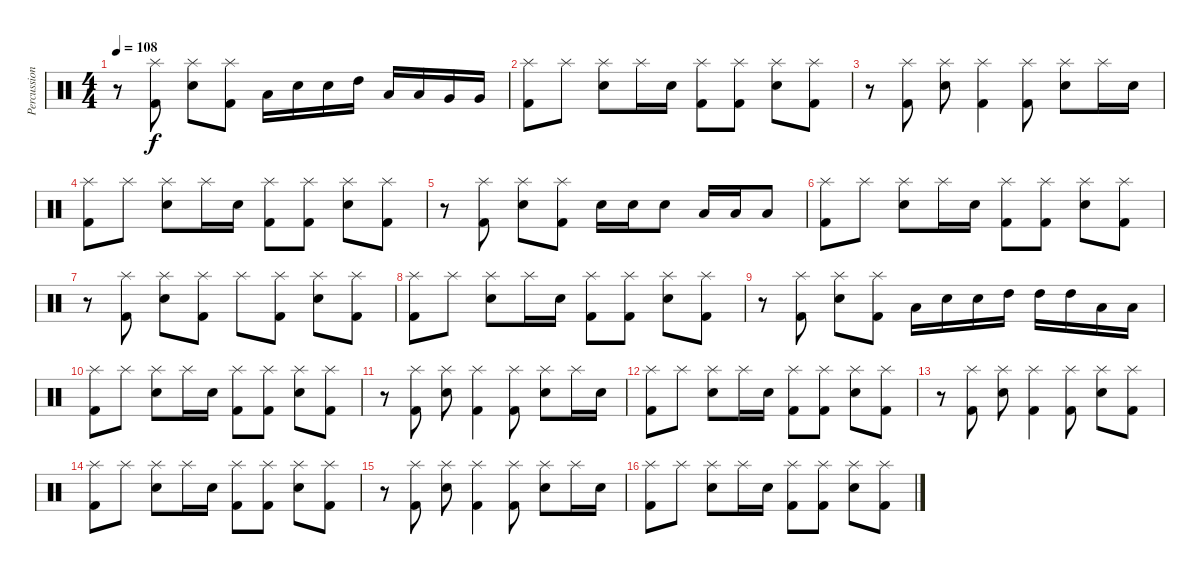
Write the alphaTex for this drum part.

\track ("Percussion" "Percussion") {instrument percussion}
\staff {score}
\articulation defaults
\ts (4 4)
\tempo 108
\clef neutral
\ks c
r.8{dy f} ("Kick (hit) 2" "Splash (hit)").8 ("Snare (hit) 2" "Splash (hit)").8 ("Kick (hit) 2" "Splash (hit)").8 "Low Tom (hit)".16 "Snare (hit) 2".16 "Snare (hit) 2".16 "High Tom (hit)".16 "Low Tom (hit)".16 "Low Tom (hit)".16 "Very Low Tom (hit)".16 "Very Low Tom (hit)".16 |
("Kick (hit) 2" "Splash (hit)").8 "Splash (hit)".8 ("Snare (hit) 2" "Splash (hit)").8 "Splash (hit)".16 "Snare (hit) 2".16 ("Kick (hit) 2" "Splash (hit)").8 ("Kick (hit) 2" "Splash (hit)").8 ("Snare (hit) 2" "Splash (hit)").8 ("Kick (hit) 2" "Splash (hit)").8 |
r.8 ("Kick (hit) 2" "Splash (hit)").8 ("Snare (hit) 2" "Splash (hit)").8 ("Kick (hit) 2" "Splash (hit)").4 ("Kick (hit) 2" "Splash (hit)").8 ("Snare (hit) 2" "Splash (hit)").8 "Splash (hit)".16 "Snare (hit) 2".16 |
("Kick (hit) 2" "Splash (hit)").8 "Splash (hit)".8 ("Snare (hit) 2" "Splash (hit)").8 "Splash (hit)".16 "Snare (hit) 2".16 ("Kick (hit) 2" "Splash (hit)").8 ("Kick (hit) 2" "Splash (hit)").8 ("Snare (hit) 2" "Splash (hit)").8 ("Kick (hit) 2" "Splash (hit)").8 |
r.8 ("Kick (hit) 2" "Splash (hit)").8 ("Snare (hit) 2" "Splash (hit)").8 ("Kick (hit) 2" "Splash (hit)").8 "Snare (hit) 2".16 "Snare (hit) 2".16 "Snare (hit) 2".8 "Low Tom (hit)".16 "Low Tom (hit)".16 "Low Tom (hit)".8 |
("Kick (hit) 2" "Splash (hit)").8 "Splash (hit)".8 ("Snare (hit) 2" "Splash (hit)").8 "Splash (hit)".16 "Snare (hit) 2".16 ("Kick (hit) 2" "Splash (hit)").8 ("Kick (hit) 2" "Splash (hit)").8 ("Snare (hit) 2" "Splash (hit)").8 ("Kick (hit) 2" "Splash (hit)").8 |
r.8 ("Kick (hit) 2" "Splash (hit)").8 ("Snare (hit) 2" "Splash (hit)").8 ("Kick (hit) 2" "Splash (hit)").8 "Splash (hit)".8 ("Kick (hit) 2" "Splash (hit)").8 ("Snare (hit) 2" "Splash (hit)").8 ("Kick (hit) 2" "Splash (hit)").8 |
("Kick (hit) 2" "Splash (hit)").8 "Splash (hit)".8 ("Snare (hit) 2" "Splash (hit)").8 "Splash (hit)".16 "Snare (hit) 2".16 ("Kick (hit) 2" "Splash (hit)").8 ("Kick (hit) 2" "Splash (hit)").8 ("Snare (hit) 2" "Splash (hit)").8 ("Kick (hit) 2" "Splash (hit)").8 |
r.8 ("Kick (hit) 2" "Splash (hit)").8 ("Snare (hit) 2" "Splash (hit)").8 ("Kick (hit) 2" "Splash (hit)").8 "Low Tom (hit)".16 "Snare (hit) 2".16 "Snare (hit) 2".16 "High Tom (hit)".16 "High Tom (hit)".16 "High Tom (hit)".16 "Low Tom (hit)".16 "Low Tom (hit)".16 |
("Kick (hit) 2" "Splash (hit)").8 "Splash (hit)".8 ("Snare (hit) 2" "Splash (hit)").8 "Splash (hit)".16 "Snare (hit) 2".16 ("Kick (hit) 2" "Splash (hit)").8 ("Kick (hit) 2" "Splash (hit)").8 ("Snare (hit) 2" "Splash (hit)").8 ("Kick (hit) 2" "Splash (hit)").8 |
r.8 ("Kick (hit) 2" "Splash (hit)").8 ("Snare (hit) 2" "Splash (hit)").8 ("Kick (hit) 2" "Splash (hit)").4 ("Kick (hit) 2" "Splash (hit)").8 ("Snare (hit) 2" "Splash (hit)").8 "Splash (hit)".16 "Snare (hit) 2".16 |
("Kick (hit) 2" "Splash (hit)").8 "Splash (hit)".8 ("Snare (hit) 2" "Splash (hit)").8 "Splash (hit)".16 "Snare (hit) 2".16 ("Kick (hit) 2" "Splash (hit)").8 ("Kick (hit) 2" "Splash (hit)").8 ("Snare (hit) 2" "Splash (hit)").8 ("Kick (hit) 2" "Splash (hit)").8 |
r.8 ("Kick (hit) 2" "Splash (hit)").8 ("Snare (hit) 2" "Splash (hit)").8 ("Kick (hit) 2" "Splash (hit)").4 ("Kick (hit) 2" "Splash (hit)").8 ("Snare (hit) 2" "Splash (hit)").8 ("Kick (hit) 2" "Splash (hit)").8 |
("Kick (hit) 2" "Splash (hit)").8 "Splash (hit)".8 ("Snare (hit) 2" "Splash (hit)").8 "Splash (hit)".16 "Snare (hit) 2".16 ("Kick (hit) 2" "Splash (hit)").8 ("Kick (hit) 2" "Splash (hit)").8 ("Snare (hit) 2" "Splash (hit)").8 ("Kick (hit) 2" "Splash (hit)").8 |
r.8 ("Kick (hit) 2" "Splash (hit)").8 ("Snare (hit) 2" "Splash (hit)").8 ("Kick (hit) 2" "Splash (hit)").4 ("Kick (hit) 2" "Splash (hit)").8 ("Snare (hit) 2" "Splash (hit)").8 "Splash (hit)".16 "Snare (hit) 2".16 |
("Kick (hit) 2" "Splash (hit)").8 "Splash (hit)".8 ("Snare (hit) 2" "Splash (hit)").8 "Splash (hit)".16 "Snare (hit) 2".16 ("Kick (hit) 2" "Splash (hit)").8 ("Kick (hit) 2" "Splash (hit)").8 ("Snare (hit) 2" "Splash (hit)").8 ("Kick (hit) 2" "Splash (hit)").8
